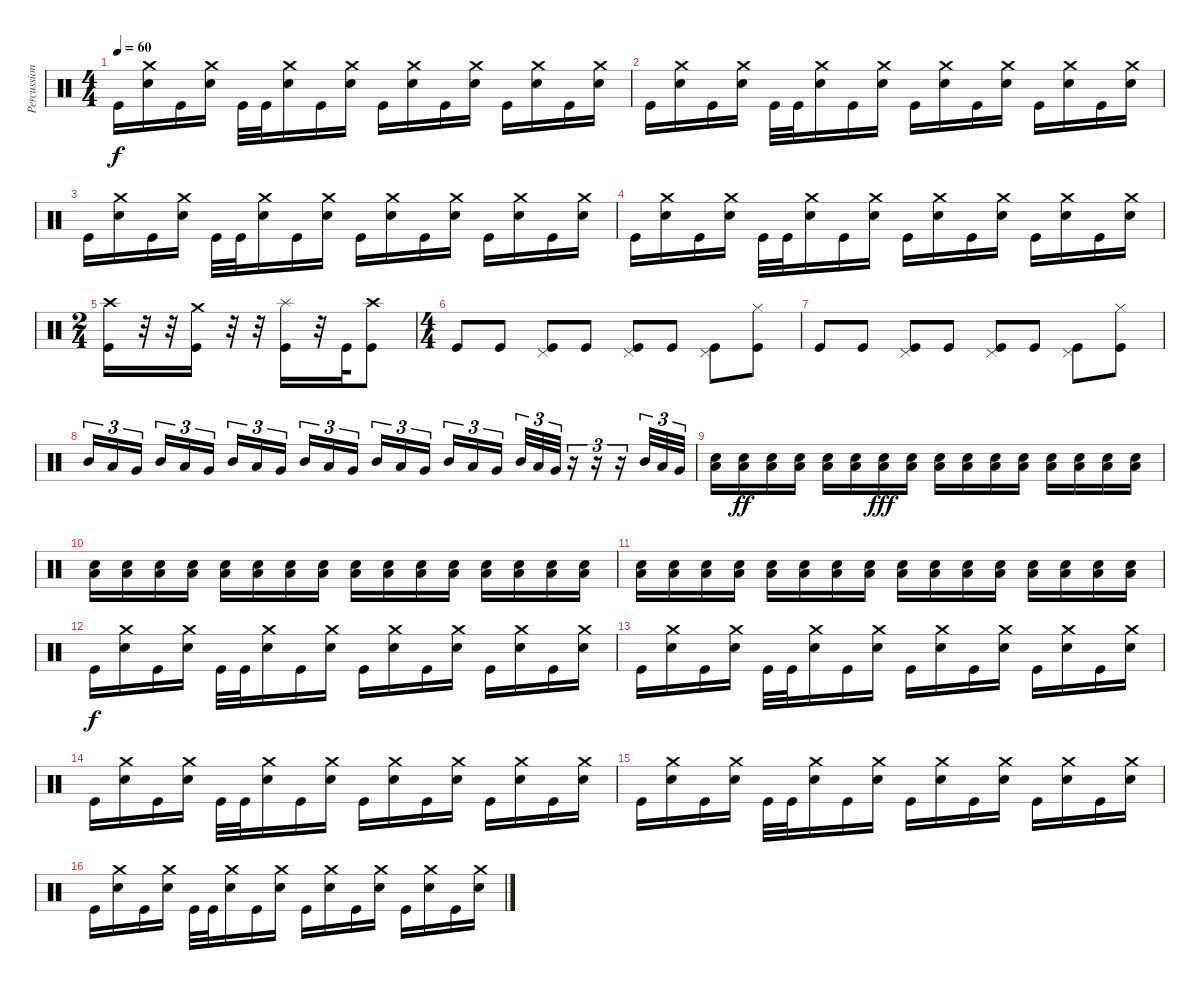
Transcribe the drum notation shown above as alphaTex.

\track ("Percussions" "Percussion") {instrument percussion}
\staff {score}
\articulation defaults
\ts (4 4)
\tempo 60
\clef neutral
\ks c "Kick (hit)".16{dy f}
("Crash medium (hit)" "Electric Snare (hit)").16 "Kick (hit)".16 ("Crash medium (hit)" "Electric Snare (hit)").16 "Kick (hit)".32 "Kick (hit)".32 ("Crash medium (hit)" "Electric Snare (hit)").16 "Kick (hit)".16 ("Crash medium (hit)" "Electric Snare (hit)").16 "Kick (hit)".16 ("Crash medium (hit)" "Electric Snare (hit)").16 "Kick (hit)".16 ("Crash medium (hit)" "Electric Snare (hit)").16 "Kick (hit)".16 ("Crash medium (hit)" "Electric Snare (hit)").16 "Kick (hit)".16 ("Crash medium (hit)" "Electric Snare (hit)").16 |
"Kick (hit)".16 ("Crash medium (hit)" "Electric Snare (hit)").16 "Kick (hit)".16 ("Crash medium (hit)" "Electric Snare (hit)").16 "Kick (hit)".32 "Kick (hit)".32 ("Crash medium (hit)" "Electric Snare (hit)").16 "Kick (hit)".16 ("Crash medium (hit)" "Electric Snare (hit)").16 "Kick (hit)".16 ("Crash medium (hit)" "Electric Snare (hit)").16 "Kick (hit)".16 ("Crash medium (hit)" "Electric Snare (hit)").16 "Kick (hit)".16 ("Crash medium (hit)" "Electric Snare (hit)").16 "Kick (hit)".16 ("Crash medium (hit)" "Electric Snare (hit)").16 |
"Kick (hit)".16 ("Crash medium (hit)" "Electric Snare (hit)").16 "Kick (hit)".16 ("Crash medium (hit)" "Electric Snare (hit)").16 "Kick (hit)".32 "Kick (hit)".32 ("Crash medium (hit)" "Electric Snare (hit)").16 "Kick (hit)".16 ("Crash medium (hit)" "Electric Snare (hit)").16 "Kick (hit)".16 ("Crash medium (hit)" "Electric Snare (hit)").16 "Kick (hit)".16 ("Crash medium (hit)" "Electric Snare (hit)").16 "Kick (hit)".16 ("Crash medium (hit)" "Electric Snare (hit)").16 "Kick (hit)".16 ("Crash medium (hit)" "Electric Snare (hit)").16 |
"Kick (hit)".16 ("Crash medium (hit)" "Electric Snare (hit)").16 "Kick (hit)".16 ("Crash medium (hit)" "Electric Snare (hit)").16 "Kick (hit)".32 "Kick (hit)".32 ("Crash medium (hit)" "Electric Snare (hit)").16 "Kick (hit)".16 ("Crash medium (hit)" "Electric Snare (hit)").16 "Kick (hit)".16 ("Crash medium (hit)" "Electric Snare (hit)").16 "Kick (hit)".16 ("Crash medium (hit)" "Electric Snare (hit)").16 "Kick (hit)".16 ("Crash medium (hit)" "Electric Snare (hit)").16 "Kick (hit)".16 ("Crash medium (hit)" "Electric Snare (hit)").16 |
\ts (2 4)
("Crash high (hit)" "Kick (hit)").16 r.32 r.32 ("Crash medium (hit)" "Kick (hit)").16 r.32 r.32 ("Splash (hit)" "Kick (hit)").16 r.32 "Kick (hit)".32 ("Crash high (hit)" "Kick (hit)").8 |
\ts (4 4)
"Kick (hit)".8 "Kick (hit)".8 ("Pedal Hi-Hat (hit)" "Kick (hit)").8 "Kick (hit)".8 ("Pedal Hi-Hat (hit)" "Kick (hit)").8 "Kick (hit)".8 ("Pedal Hi-Hat (hit)" "Kick (hit)").8 ("Hi-Hat (closed)" "Kick (hit)").8 |
"Kick (hit)".8 "Kick (hit)".8 ("Pedal Hi-Hat (hit)" "Kick (hit)").8 "Kick (hit)".8 ("Pedal Hi-Hat (hit)" "Kick (hit)").8 "Kick (hit)".8 ("Pedal Hi-Hat (hit)" "Kick (hit)").8 ("Hi-Hat (closed)" "Kick (hit)").8 |
"Mid Tom (hit)".16{tu (3 2)} "Low Tom (hit)".16{tu (3 2)} "Very Low Tom (hit)".16{tu (3 2)} "Mid Tom (hit)".16{tu (3 2)} "Low Tom (hit)".16{tu (3 2)} "Very Low Tom (hit)".16{tu (3 2)} "Mid Tom (hit)".16{tu (3 2)} "Low Tom (hit)".16{tu (3 2)} "Very Low Tom (hit)".16{tu (3 2)} "Mid Tom (hit)".16{tu (3 2)} "Low Tom (hit)".16{tu (3 2)} "Very Low Tom (hit)".16{tu (3 2)} "Mid Tom (hit)".16{tu (3 2)} "Low Tom (hit)".16{tu (3 2)} "Very Low Tom (hit)".16{tu (3 2)} "Mid Tom (hit)".16{tu (3 2)} "Low Tom (hit)".16{tu (3 2)} "Very Low Tom (hit)".16{tu (3 2)} "Mid Tom (hit)".32{tu (3 2)} "Low Tom (hit)".32{tu (3 2)} "Very Low Tom (hit)".32{tu (3 2)} r.16{tu (3 2)} r.16{tu (3 2)} r.16{tu (3 2)} "Mid Tom (hit)".32{tu (3 2)} "Low Tom (hit)".32{tu (3 2)} "Very Low Tom (hit)".32{tu (3 2)} |
("Electric Snare (hit)" "Low Floor Tom (hit)").16 ("Electric Snare (hit)" "Low Floor Tom (hit)").16{dy ff} ("Electric Snare (hit)" "Low Floor Tom (hit)").16 ("Electric Snare (hit)" "Low Floor Tom (hit)").16 ("Electric Snare (hit)" "Low Floor Tom (hit)").16 ("Electric Snare (hit)" "Low Floor Tom (hit)").16 ("Electric Snare (hit)" "Low Floor Tom (hit)").16{dy fff} ("Electric Snare (hit)" "Low Floor Tom (hit)").16 ("Electric Snare (hit)" "Low Floor Tom (hit)").16 ("Electric Snare (hit)" "Low Floor Tom (hit)").16 ("Electric Snare (hit)" "Low Floor Tom (hit)").16 ("Electric Snare (hit)" "Low Floor Tom (hit)").16 ("Electric Snare (hit)" "Low Floor Tom (hit)").16 ("Electric Snare (hit)" "Low Floor Tom (hit)").16 ("Electric Snare (hit)" "Low Floor Tom (hit)").16 ("Electric Snare (hit)" "Low Floor Tom (hit)").16 |
("Electric Snare (hit)" "Low Floor Tom (hit)").16 ("Electric Snare (hit)" "Low Floor Tom (hit)").16 ("Electric Snare (hit)" "Low Floor Tom (hit)").16 ("Electric Snare (hit)" "Low Floor Tom (hit)").16 ("Electric Snare (hit)" "Low Floor Tom (hit)").16 ("Electric Snare (hit)" "Low Floor Tom (hit)").16 ("Electric Snare (hit)" "Low Floor Tom (hit)").16 ("Electric Snare (hit)" "Low Floor Tom (hit)").16 ("Electric Snare (hit)" "Low Floor Tom (hit)").16 ("Electric Snare (hit)" "Low Floor Tom (hit)").16 ("Electric Snare (hit)" "Low Floor Tom (hit)").16 ("Electric Snare (hit)" "Low Floor Tom (hit)").16 ("Electric Snare (hit)" "Low Floor Tom (hit)").16 ("Electric Snare (hit)" "Low Floor Tom (hit)").16 ("Electric Snare (hit)" "Low Floor Tom (hit)").16 ("Electric Snare (hit)" "Low Floor Tom (hit)").16 |
("Electric Snare (hit)" "Low Floor Tom (hit)").16 ("Electric Snare (hit)" "Low Floor Tom (hit)").16 ("Electric Snare (hit)" "Low Floor Tom (hit)").16 ("Electric Snare (hit)" "Low Floor Tom (hit)").16 ("Electric Snare (hit)" "Low Floor Tom (hit)").16 ("Electric Snare (hit)" "Low Floor Tom (hit)").16 ("Electric Snare (hit)" "Low Floor Tom (hit)").16 ("Electric Snare (hit)" "Low Floor Tom (hit)").16 ("Electric Snare (hit)" "Low Floor Tom (hit)").16 ("Electric Snare (hit)" "Low Floor Tom (hit)").16 ("Electric Snare (hit)" "Low Floor Tom (hit)").16 ("Electric Snare (hit)" "Low Floor Tom (hit)").16 ("Electric Snare (hit)" "Low Floor Tom (hit)").16 ("Electric Snare (hit)" "Low Floor Tom (hit)").16 ("Electric Snare (hit)" "Low Floor Tom (hit)").16 ("Electric Snare (hit)" "Low Floor Tom (hit)").16 |
"Kick (hit)".16{dy f} ("Crash medium (hit)" "Electric Snare (hit)").16 "Kick (hit)".16 ("Crash medium (hit)" "Electric Snare (hit)").16 "Kick (hit)".32 "Kick (hit)".32 ("Crash medium (hit)" "Electric Snare (hit)").16 "Kick (hit)".16 ("Crash medium (hit)" "Electric Snare (hit)").16 "Kick (hit)".16 ("Crash medium (hit)" "Electric Snare (hit)").16 "Kick (hit)".16 ("Crash medium (hit)" "Electric Snare (hit)").16 "Kick (hit)".16 ("Crash medium (hit)" "Electric Snare (hit)").16 "Kick (hit)".16 ("Crash medium (hit)" "Electric Snare (hit)").16 |
"Kick (hit)".16 ("Crash medium (hit)" "Electric Snare (hit)").16 "Kick (hit)".16 ("Crash medium (hit)" "Electric Snare (hit)").16 "Kick (hit)".32 "Kick (hit)".32 ("Crash medium (hit)" "Electric Snare (hit)").16 "Kick (hit)".16 ("Crash medium (hit)" "Electric Snare (hit)").16 "Kick (hit)".16 ("Crash medium (hit)" "Electric Snare (hit)").16 "Kick (hit)".16 ("Crash medium (hit)" "Electric Snare (hit)").16 "Kick (hit)".16 ("Crash medium (hit)" "Electric Snare (hit)").16 "Kick (hit)".16 ("Crash medium (hit)" "Electric Snare (hit)").16 |
"Kick (hit)".16 ("Crash medium (hit)" "Electric Snare (hit)").16 "Kick (hit)".16 ("Crash medium (hit)" "Electric Snare (hit)").16 "Kick (hit)".32 "Kick (hit)".32 ("Crash medium (hit)" "Electric Snare (hit)").16 "Kick (hit)".16 ("Crash medium (hit)" "Electric Snare (hit)").16 "Kick (hit)".16 ("Crash medium (hit)" "Electric Snare (hit)").16 "Kick (hit)".16 ("Crash medium (hit)" "Electric Snare (hit)").16 "Kick (hit)".16 ("Crash medium (hit)" "Electric Snare (hit)").16 "Kick (hit)".16 ("Crash medium (hit)" "Electric Snare (hit)").16 |
"Kick (hit)".16 ("Crash medium (hit)" "Electric Snare (hit)").16 "Kick (hit)".16 ("Crash medium (hit)" "Electric Snare (hit)").16 "Kick (hit)".32 "Kick (hit)".32 ("Crash medium (hit)" "Electric Snare (hit)").16 "Kick (hit)".16 ("Crash medium (hit)" "Electric Snare (hit)").16 "Kick (hit)".16 ("Crash medium (hit)" "Electric Snare (hit)").16 "Kick (hit)".16 ("Crash medium (hit)" "Electric Snare (hit)").16 "Kick (hit)".16 ("Crash medium (hit)" "Electric Snare (hit)").16 "Kick (hit)".16 ("Crash medium (hit)" "Electric Snare (hit)").16 |
"Kick (hit)".16 ("Crash medium (hit)" "Electric Snare (hit)").16 "Kick (hit)".16 ("Crash medium (hit)" "Electric Snare (hit)").16 "Kick (hit)".32 "Kick (hit)".32 ("Crash medium (hit)" "Electric Snare (hit)").16 "Kick (hit)".16 ("Crash medium (hit)" "Electric Snare (hit)").16 "Kick (hit)".16 ("Crash medium (hit)" "Electric Snare (hit)").16 "Kick (hit)".16 ("Crash medium (hit)" "Electric Snare (hit)").16 "Kick (hit)".16 ("Crash medium (hit)" "Electric Snare (hit)").16 "Kick (hit)".16 ("Crash medium (hit)" "Electric Snare (hit)").16
